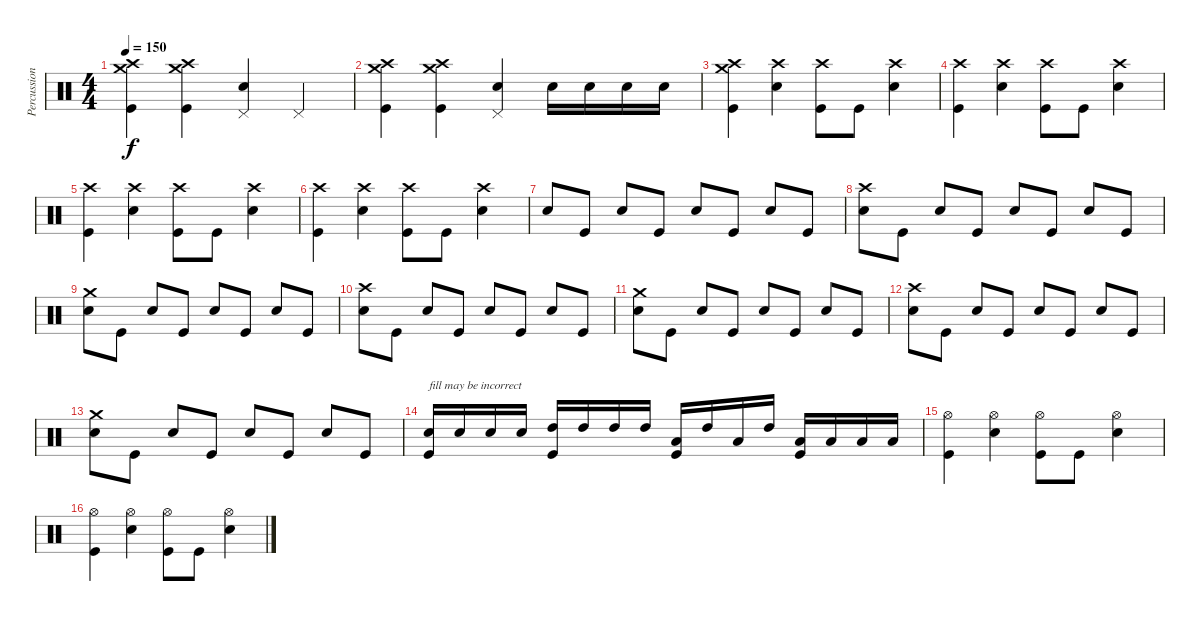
\track ("Percussion" "Percussion") {instrument percussion}
\staff {score}
\articulation defaults
\ts (4 4)
\tempo 150
\clef neutral
\ks c
("Crash high (hit)" "Crash medium (hit)" "Kick (hit)").4{dy f} ("Crash high (hit)" "Crash medium (hit)" "Kick (hit)").4 ("Pedal Hi-Hat (hit)" "Electric Snare (hit)").4 "Pedal Hi-Hat (hit)".4 |
("Crash high (hit)" "Crash medium (hit)" "Kick (hit)").4 ("Crash high (hit)" "Crash medium (hit)" "Kick (hit)").4 ("Pedal Hi-Hat (hit)" "Electric Snare (hit)").4 "Electric Snare (hit)".16 "Electric Snare (hit)".16 "Electric Snare (hit)".16 "Electric Snare (hit)".16 |
("Crash high (hit)" "Crash medium (hit)" "Kick (hit)").4 ("Crash high (hit)" "Electric Snare (hit)").4 ("Crash high (hit)" "Kick (hit)").8 "Kick (hit)".8 ("Crash high (hit)" "Electric Snare (hit)").4 |
("Crash high (hit)" "Kick (hit)").4 ("Crash high (hit)" "Electric Snare (hit)").4 ("Crash high (hit)" "Kick (hit)").8 "Kick (hit)".8 ("Crash high (hit)" "Electric Snare (hit)").4 |
("Crash high (hit)" "Kick (hit)").4 ("Crash high (hit)" "Electric Snare (hit)").4 ("Crash high (hit)" "Kick (hit)").8 "Kick (hit)".8 ("Crash high (hit)" "Electric Snare (hit)").4 |
("Crash high (hit)" "Kick (hit)").4 ("Crash high (hit)" "Electric Snare (hit)").4 ("Crash high (hit)" "Kick (hit)").8 "Kick (hit)".8 ("Crash high (hit)" "Electric Snare (hit)").4 |
"Electric Snare (hit)".8 "Kick (hit)".8 "Electric Snare (hit)".8 "Kick (hit)".8 "Electric Snare (hit)".8 "Kick (hit)".8 "Electric Snare (hit)".8 "Kick (hit)".8 |
("Crash high (hit)" "Electric Snare (hit)").8 "Kick (hit)".8 "Electric Snare (hit)".8 "Kick (hit)".8 "Electric Snare (hit)".8 "Kick (hit)".8 "Electric Snare (hit)".8 "Kick (hit)".8 |
("Crash medium (hit)" "Electric Snare (hit)").8 "Kick (hit)".8 "Electric Snare (hit)".8 "Kick (hit)".8 "Electric Snare (hit)".8 "Kick (hit)".8 "Electric Snare (hit)".8 "Kick (hit)".8 |
("Crash high (hit)" "Electric Snare (hit)").8 "Kick (hit)".8 "Electric Snare (hit)".8 "Kick (hit)".8 "Electric Snare (hit)".8 "Kick (hit)".8 "Electric Snare (hit)".8 "Kick (hit)".8 |
("Crash medium (hit)" "Electric Snare (hit)").8 "Kick (hit)".8 "Electric Snare (hit)".8 "Kick (hit)".8 "Electric Snare (hit)".8 "Kick (hit)".8 "Electric Snare (hit)".8 "Kick (hit)".8 |
("Crash high (hit)" "Electric Snare (hit)").8 "Kick (hit)".8 "Electric Snare (hit)".8 "Kick (hit)".8 "Electric Snare (hit)".8 "Kick (hit)".8 "Electric Snare (hit)".8 "Kick (hit)".8 |
("Crash medium (hit)" "Electric Snare (hit)").8 "Kick (hit)".8 "Electric Snare (hit)".8 "Kick (hit)".8 "Electric Snare (hit)".8 "Kick (hit)".8 "Electric Snare (hit)".8 "Kick (hit)".8 |
("Electric Snare (hit)" "Kick (hit)").16{txt "fill may be incorrect"} "Electric Snare (hit)".16 "Electric Snare (hit)".16 "Electric Snare (hit)".16 ("High Tom (hit)" "Kick (hit)").16 "High Tom (hit)".16 "High Tom (hit)".16 "High Tom (hit)".16 ("Low Floor Tom (hit)" "Kick (hit)").16 "High Tom (hit)".16 "Low Floor Tom (hit)".16 "High Tom (hit)".16 ("Low Floor Tom (hit)" "Kick (hit)").16 "Low Floor Tom (hit)".16 "Low Floor Tom (hit)".16 "Low Floor Tom (hit)".16 |
("Hi-Hat (open)" "Kick (hit)").4 ("Hi-Hat (open)" "Electric Snare (hit)").4 ("Hi-Hat (open)" "Kick (hit)").8 "Kick (hit)".8 ("Hi-Hat (open)" "Electric Snare (hit)").4 |
("Hi-Hat (open)" "Kick (hit)").4 ("Hi-Hat (open)" "Electric Snare (hit)").4 ("Hi-Hat (open)" "Kick (hit)").8 "Kick (hit)".8 ("Hi-Hat (open)" "Electric Snare (hit)").4
